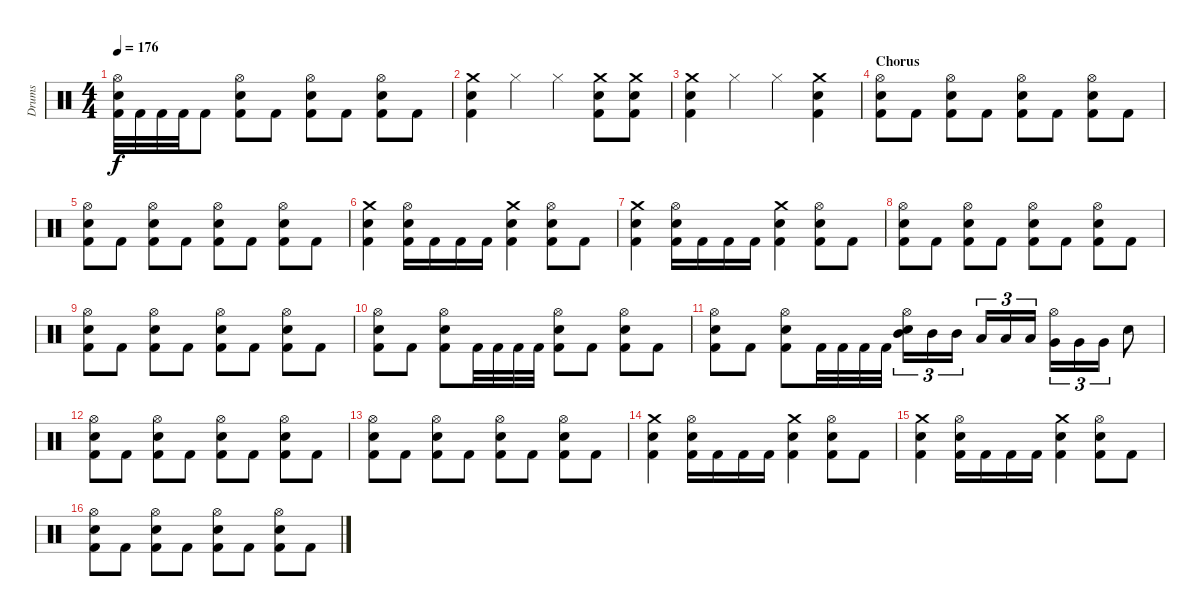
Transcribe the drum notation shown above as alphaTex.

\track ("Drums" "Drums") {instrument percussion}
\staff {score}
\articulation defaults
\ts (4 4)
\tempo 176
\clef neutral
\ks c
("Hi-Hat (open)" "Snare (hit) 2" "Kick (hit) 2").32{dy f} "Kick (hit) 2".32 "Kick (hit) 2".32 "Kick (hit) 2".32 "Kick (hit) 2".8 ("Hi-Hat (open)" "Snare (hit) 2" "Kick (hit) 2").8 "Kick (hit) 2".8 ("Hi-Hat (open)" "Snare (hit) 2" "Kick (hit) 2").8 "Kick (hit) 2".8 ("Hi-Hat (open)" "Snare (hit) 2" "Kick (hit) 2").8 "Kick (hit) 2".8 |
("Crash medium (hit)" "Snare (hit) 2" "Kick (hit) 2").4 "Hi-Hat (closed)".4 "Hi-Hat (closed)".4 ("Crash medium (hit)" "Snare (hit) 2" "Kick (hit) 2").8 ("Crash medium (hit)" "Snare (hit) 2" "Kick (hit) 2").8 |
("Crash medium (hit)" "Snare (hit) 2" "Kick (hit) 2").4 "Hi-Hat (closed)".4 "Hi-Hat (closed)".4 ("Crash medium (hit)" "Snare (hit) 2" "Kick (hit) 2").4 |
\section ("" "Chorus")
("Hi-Hat (open)" "Snare (hit) 2" "Kick (hit) 2").8 "Kick (hit) 2".8 ("Hi-Hat (open)" "Snare (hit) 2" "Kick (hit) 2").8 "Kick (hit) 2".8 ("Hi-Hat (open)" "Snare (hit) 2" "Kick (hit) 2").8 "Kick (hit) 2".8 ("Hi-Hat (open)" "Snare (hit) 2" "Kick (hit) 2").8 "Kick (hit) 2".8 |
("Hi-Hat (open)" "Snare (hit) 2" "Kick (hit) 2").8 "Kick (hit) 2".8 ("Hi-Hat (open)" "Snare (hit) 2" "Kick (hit) 2").8 "Kick (hit) 2".8 ("Hi-Hat (open)" "Snare (hit) 2" "Kick (hit) 2").8 "Kick (hit) 2".8 ("Hi-Hat (open)" "Snare (hit) 2" "Kick (hit) 2").8 "Kick (hit) 2".8 |
("Crash medium (hit)" "Snare (hit) 2" "Kick (hit) 2").4 ("Hi-Hat (open)" "Snare (hit) 2" "Kick (hit) 2").16 "Kick (hit) 2".16 "Kick (hit) 2".16 "Kick (hit) 2".16 ("Crash medium (hit)" "Snare (hit) 2" "Kick (hit) 2").4 ("Hi-Hat (open)" "Snare (hit) 2" "Kick (hit) 2").8 "Kick (hit) 2".8 |
("Crash medium (hit)" "Snare (hit) 2" "Kick (hit) 2").4 ("Hi-Hat (open)" "Snare (hit) 2" "Kick (hit) 2").16 "Kick (hit) 2".16 "Kick (hit) 2".16 "Kick (hit) 2".16 ("Crash medium (hit)" "Snare (hit) 2" "Kick (hit) 2").4 ("Hi-Hat (open)" "Snare (hit) 2" "Kick (hit) 2").8 "Kick (hit) 2".8 |
("Hi-Hat (open)" "Snare (hit) 2" "Kick (hit) 2").8 "Kick (hit) 2".8 ("Hi-Hat (open)" "Snare (hit) 2" "Kick (hit) 2").8 "Kick (hit) 2".8 ("Hi-Hat (open)" "Snare (hit) 2" "Kick (hit) 2").8 "Kick (hit) 2".8 ("Hi-Hat (open)" "Snare (hit) 2" "Kick (hit) 2").8 "Kick (hit) 2".8 |
("Hi-Hat (open)" "Snare (hit) 2" "Kick (hit) 2").8 "Kick (hit) 2".8 ("Hi-Hat (open)" "Snare (hit) 2" "Kick (hit) 2").8 "Kick (hit) 2".8 ("Hi-Hat (open)" "Snare (hit) 2" "Kick (hit) 2").8 "Kick (hit) 2".8 ("Hi-Hat (open)" "Snare (hit) 2" "Kick (hit) 2").8 "Kick (hit) 2".8 |
("Hi-Hat (open)" "Snare (hit) 2" "Kick (hit) 2").8 "Kick (hit) 2".8 ("Hi-Hat (open)" "Snare (hit) 2" "Kick (hit) 2").8 "Kick (hit) 2".32 "Kick (hit) 2".32 "Kick (hit) 2".32 "Kick (hit) 2".32 ("Hi-Hat (open)" "Snare (hit) 2" "Kick (hit) 2").8 "Kick (hit) 2".8 ("Hi-Hat (open)" "Snare (hit) 2" "Kick (hit) 2").8 "Kick (hit) 2".8 |
("Hi-Hat (open)" "Snare (hit) 2" "Kick (hit) 2").8 "Kick (hit) 2".8 ("Hi-Hat (open)" "Snare (hit) 2" "Kick (hit) 2").8 "Kick (hit) 2".32 "Kick (hit) 2".32 "Kick (hit) 2".32 "Kick (hit) 2".32 ("Hi-Hat (open)" "Mid Tom (hit)" "Snare (hit) 2").16{tu (3 2)} "Mid Tom (hit)".16{tu (3 2)} "Mid Tom (hit)".16{tu (3 2)} "Low Tom (hit)".16{tu (3 2)} "Low Tom (hit)".16{tu (3 2)} "Low Tom (hit)".16{tu (3 2)} ("Hi-Hat (open)" "Very Low Tom (hit)").16{tu (3 2)} "Very Low Tom (hit)".16{tu (3 2)} "Very Low Tom (hit)".16{tu (3 2)} "Snare (hit) 2".8 |
("Hi-Hat (open)" "Snare (hit) 2" "Kick (hit) 2").8 "Kick (hit) 2".8 ("Hi-Hat (open)" "Snare (hit) 2" "Kick (hit) 2").8 "Kick (hit) 2".8 ("Hi-Hat (open)" "Snare (hit) 2" "Kick (hit) 2").8 "Kick (hit) 2".8 ("Hi-Hat (open)" "Snare (hit) 2" "Kick (hit) 2").8 "Kick (hit) 2".8 |
("Hi-Hat (open)" "Snare (hit) 2" "Kick (hit) 2").8 "Kick (hit) 2".8 ("Hi-Hat (open)" "Snare (hit) 2" "Kick (hit) 2").8 "Kick (hit) 2".8 ("Hi-Hat (open)" "Snare (hit) 2" "Kick (hit) 2").8 "Kick (hit) 2".8 ("Hi-Hat (open)" "Snare (hit) 2" "Kick (hit) 2").8 "Kick (hit) 2".8 |
("Crash medium (hit)" "Snare (hit) 2" "Kick (hit) 2").4 ("Hi-Hat (open)" "Snare (hit) 2" "Kick (hit) 2").16 "Kick (hit) 2".16 "Kick (hit) 2".16 "Kick (hit) 2".16 ("Crash medium (hit)" "Snare (hit) 2" "Kick (hit) 2").4 ("Hi-Hat (open)" "Snare (hit) 2" "Kick (hit) 2").8 "Kick (hit) 2".8 |
("Crash medium (hit)" "Snare (hit) 2" "Kick (hit) 2").4 ("Hi-Hat (open)" "Snare (hit) 2" "Kick (hit) 2").16 "Kick (hit) 2".16 "Kick (hit) 2".16 "Kick (hit) 2".16 ("Crash medium (hit)" "Snare (hit) 2" "Kick (hit) 2").4 ("Hi-Hat (open)" "Snare (hit) 2" "Kick (hit) 2").8 "Kick (hit) 2".8 |
("Hi-Hat (open)" "Snare (hit) 2" "Kick (hit) 2").8 "Kick (hit) 2".8 ("Hi-Hat (open)" "Snare (hit) 2" "Kick (hit) 2").8 "Kick (hit) 2".8 ("Hi-Hat (open)" "Snare (hit) 2" "Kick (hit) 2").8 "Kick (hit) 2".8 ("Hi-Hat (open)" "Snare (hit) 2" "Kick (hit) 2").8 "Kick (hit) 2".8
